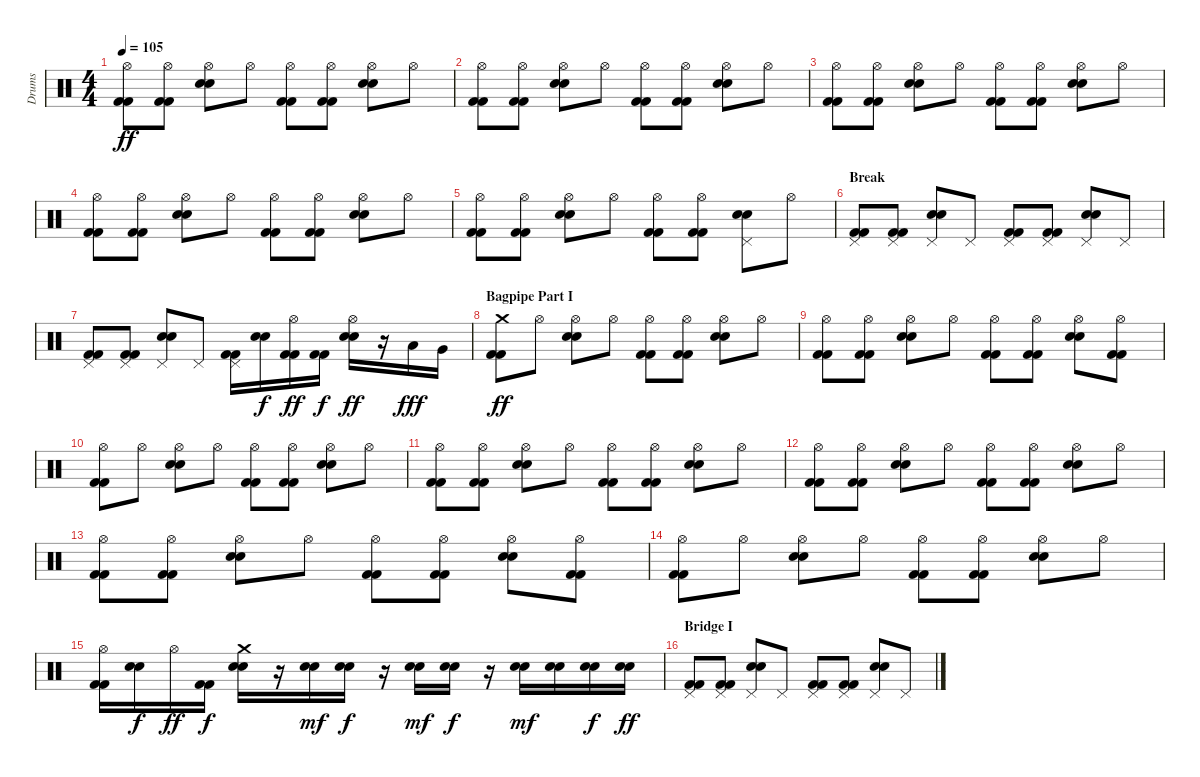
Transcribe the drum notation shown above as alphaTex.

\track ("Drums" "Drums") {instrument percussion}
\staff {score}
\articulation defaults
\ts (4 4)
\tempo 105
\clef neutral
\ks c
("Hi-Hat (open)" "Kick (hit) 2" "Kick (hit) 2").8{dy ff} ("Hi-Hat (open)" "Kick (hit) 2" "Kick (hit) 2").8 ("Hi-Hat (open)" "Electric Snare (hit)" "Snare (hit) 2").8 "Hi-Hat (open)".8 ("Hi-Hat (open)" "Kick (hit) 2" "Kick (hit) 2").8 ("Hi-Hat (open)" "Kick (hit) 2" "Kick (hit) 2").8 ("Hi-Hat (open)" "Electric Snare (hit)" "Snare (hit) 2").8 "Hi-Hat (open)".8 |
("Hi-Hat (open)" "Kick (hit) 2" "Kick (hit) 2").8 ("Hi-Hat (open)" "Kick (hit) 2" "Kick (hit) 2").8 ("Hi-Hat (open)" "Electric Snare (hit)" "Snare (hit) 2").8 "Hi-Hat (open)".8 ("Hi-Hat (open)" "Kick (hit) 2" "Kick (hit) 2").8 ("Hi-Hat (open)" "Kick (hit) 2" "Kick (hit) 2").8 ("Hi-Hat (open)" "Electric Snare (hit)" "Snare (hit) 2").8 "Hi-Hat (open)".8 |
("Hi-Hat (open)" "Kick (hit) 2" "Kick (hit) 2").8 ("Hi-Hat (open)" "Kick (hit) 2" "Kick (hit) 2").8 ("Hi-Hat (open)" "Electric Snare (hit)" "Snare (hit) 2").8 "Hi-Hat (open)".8 ("Hi-Hat (open)" "Kick (hit) 2" "Kick (hit) 2").8 ("Hi-Hat (open)" "Kick (hit) 2" "Kick (hit) 2").8 ("Hi-Hat (open)" "Electric Snare (hit)" "Snare (hit) 2").8 "Hi-Hat (open)".8 |
("Hi-Hat (open)" "Kick (hit) 2" "Kick (hit) 2").8 ("Hi-Hat (open)" "Kick (hit) 2" "Kick (hit) 2").8 ("Hi-Hat (open)" "Electric Snare (hit)" "Snare (hit) 2").8 "Hi-Hat (open)".8 ("Hi-Hat (open)" "Kick (hit) 2" "Kick (hit) 2").8 ("Hi-Hat (open)" "Kick (hit) 2" "Kick (hit) 2").8 ("Hi-Hat (open)" "Electric Snare (hit)" "Snare (hit) 2").8 "Hi-Hat (open)".8 |
("Hi-Hat (open)" "Kick (hit) 2" "Kick (hit) 2").8 ("Hi-Hat (open)" "Kick (hit) 2" "Kick (hit) 2").8 ("Hi-Hat (open)" "Electric Snare (hit)" "Snare (hit) 2").8 "Hi-Hat (open)".8 ("Hi-Hat (open)" "Kick (hit) 2" "Kick (hit) 2").8 ("Hi-Hat (open)" "Kick (hit) 2" "Kick (hit) 2").8 ("Pedal Hi-Hat (hit)" "Electric Snare (hit)" "Snare (hit) 2").8 "Hi-Hat (open)".8 |
\section ("" "Break")
("Pedal Hi-Hat (hit)" "Kick (hit) 2" "Kick (hit) 2").8 ("Pedal Hi-Hat (hit)" "Kick (hit) 2" "Kick (hit) 2").8 ("Pedal Hi-Hat (hit)" "Electric Snare (hit)" "Snare (hit) 2").8 "Pedal Hi-Hat (hit)".8 ("Pedal Hi-Hat (hit)" "Kick (hit) 2" "Kick (hit) 2").8 ("Pedal Hi-Hat (hit)" "Kick (hit) 2" "Kick (hit) 2").8 ("Pedal Hi-Hat (hit)" "Electric Snare (hit)" "Snare (hit) 2").8 "Pedal Hi-Hat (hit)".8 |
("Pedal Hi-Hat (hit)" "Kick (hit) 2" "Kick (hit) 2").8 ("Pedal Hi-Hat (hit)" "Kick (hit) 2" "Kick (hit) 2").8 ("Pedal Hi-Hat (hit)" "Electric Snare (hit)" "Snare (hit) 2").8 "Pedal Hi-Hat (hit)".8 ("Pedal Hi-Hat (hit)" "Kick (hit) 2" "Kick (hit) 2").16 ("Electric Snare (hit)" "Snare (hit) 2").16{dy f} ("Hi-Hat (open)" "Kick (hit) 2" "Kick (hit) 2").16{dy ff} ("Kick (hit) 2" "Kick (hit) 2").16{dy f} ("Hi-Hat (open)" "Electric Snare (hit)" "Snare (hit) 2").16{dy ff} r.16 "Low Tom (hit)".16{dy fff} "Very Low Tom (hit)".16 |
\section ("" "Bagpipe Part I")
("Crash medium (hit)" "Kick (hit) 2" "Kick (hit) 2").8{dy ff} "Hi-Hat (open)".8 ("Hi-Hat (open)" "Electric Snare (hit)" "Snare (hit) 2").8 "Hi-Hat (open)".8 ("Hi-Hat (open)" "Kick (hit) 2" "Kick (hit) 2").8 ("Hi-Hat (open)" "Kick (hit) 2" "Kick (hit) 2").8 ("Hi-Hat (open)" "Electric Snare (hit)" "Snare (hit) 2").8 "Hi-Hat (open)".8 |
("Hi-Hat (open)" "Kick (hit) 2" "Kick (hit) 2").8 ("Hi-Hat (open)" "Kick (hit) 2" "Kick (hit) 2").8 ("Hi-Hat (open)" "Electric Snare (hit)" "Snare (hit) 2").8 "Hi-Hat (open)".8 ("Hi-Hat (open)" "Kick (hit) 2" "Kick (hit) 2").8 ("Hi-Hat (open)" "Kick (hit) 2" "Kick (hit) 2").8 ("Hi-Hat (open)" "Electric Snare (hit)" "Snare (hit) 2").8 ("Hi-Hat (open)" "Kick (hit) 2" "Kick (hit) 2").8 |
("Hi-Hat (open)" "Kick (hit) 2" "Kick (hit) 2").8 "Hi-Hat (open)".8 ("Hi-Hat (open)" "Electric Snare (hit)" "Snare (hit) 2").8 "Hi-Hat (open)".8 ("Hi-Hat (open)" "Kick (hit) 2" "Kick (hit) 2").8 ("Hi-Hat (open)" "Kick (hit) 2" "Kick (hit) 2").8 ("Hi-Hat (open)" "Electric Snare (hit)" "Snare (hit) 2").8 "Hi-Hat (open)".8 |
("Hi-Hat (open)" "Kick (hit) 2" "Kick (hit) 2").8 ("Hi-Hat (open)" "Kick (hit) 2" "Kick (hit) 2").8 ("Hi-Hat (open)" "Electric Snare (hit)" "Snare (hit) 2").8 "Hi-Hat (open)".8 ("Hi-Hat (open)" "Kick (hit) 2" "Kick (hit) 2").8 ("Hi-Hat (open)" "Kick (hit) 2" "Kick (hit) 2").8 ("Hi-Hat (open)" "Electric Snare (hit)" "Snare (hit) 2").8 "Hi-Hat (open)".8 |
("Hi-Hat (open)" "Kick (hit) 2" "Kick (hit) 2").8 ("Hi-Hat (open)" "Kick (hit) 2" "Kick (hit) 2").8 ("Hi-Hat (open)" "Electric Snare (hit)" "Snare (hit) 2").8 "Hi-Hat (open)".8 ("Hi-Hat (open)" "Kick (hit) 2" "Kick (hit) 2").8 ("Hi-Hat (open)" "Kick (hit) 2" "Kick (hit) 2").8 ("Hi-Hat (open)" "Electric Snare (hit)" "Snare (hit) 2").8 "Hi-Hat (open)".8 |
("Hi-Hat (open)" "Kick (hit) 2" "Kick (hit) 2").8 ("Hi-Hat (open)" "Kick (hit) 2" "Kick (hit) 2").8 ("Hi-Hat (open)" "Electric Snare (hit)" "Snare (hit) 2").8 "Hi-Hat (open)".8 ("Hi-Hat (open)" "Kick (hit) 2" "Kick (hit) 2").8 ("Hi-Hat (open)" "Kick (hit) 2" "Kick (hit) 2").8 ("Hi-Hat (open)" "Electric Snare (hit)" "Snare (hit) 2").8 ("Hi-Hat (open)" "Kick (hit) 2" "Kick (hit) 2").8 |
("Hi-Hat (open)" "Kick (hit) 2" "Kick (hit) 2").8 "Hi-Hat (open)".8 ("Hi-Hat (open)" "Electric Snare (hit)" "Snare (hit) 2").8 "Hi-Hat (open)".8 ("Hi-Hat (open)" "Kick (hit) 2" "Kick (hit) 2").8 ("Hi-Hat (open)" "Kick (hit) 2" "Kick (hit) 2").8 ("Hi-Hat (open)" "Electric Snare (hit)" "Snare (hit) 2").8 "Hi-Hat (open)".8 |
("Hi-Hat (open)" "Kick (hit) 2" "Kick (hit) 2").16 ("Electric Snare (hit)" "Snare (hit) 2").16{dy f} "Hi-Hat (open)".16{dy ff} ("Kick (hit) 2" "Kick (hit) 2").16{dy f} ("Crash medium (hit)" "Electric Snare (hit)" "Snare (hit) 2").16 r.16 ("Electric Snare (hit)" "Snare (hit) 2").16{dy mf} ("Electric Snare (hit)" "Snare (hit) 2").16{dy f} r.16 ("Electric Snare (hit)" "Snare (hit) 2").16{dy mf} ("Electric Snare (hit)" "Snare (hit) 2").16{dy f} r.16 ("Electric Snare (hit)" "Snare (hit) 2").16{dy mf} ("Electric Snare (hit)" "Snare (hit) 2").16 ("Electric Snare (hit)" "Snare (hit) 2").16{dy f} ("Electric Snare (hit)" "Snare (hit) 2").16{dy ff} |
\section ("" "Bridge I")
("Pedal Hi-Hat (hit)" "Kick (hit) 2" "Kick (hit) 2").8 ("Pedal Hi-Hat (hit)" "Kick (hit) 2" "Kick (hit) 2").8 ("Pedal Hi-Hat (hit)" "Electric Snare (hit)" "Snare (hit) 2").8 "Pedal Hi-Hat (hit)".8 ("Pedal Hi-Hat (hit)" "Kick (hit) 2" "Kick (hit) 2").8 ("Pedal Hi-Hat (hit)" "Kick (hit) 2" "Kick (hit) 2").8 ("Pedal Hi-Hat (hit)" "Electric Snare (hit)" "Snare (hit) 2").8 "Pedal Hi-Hat (hit)".8
